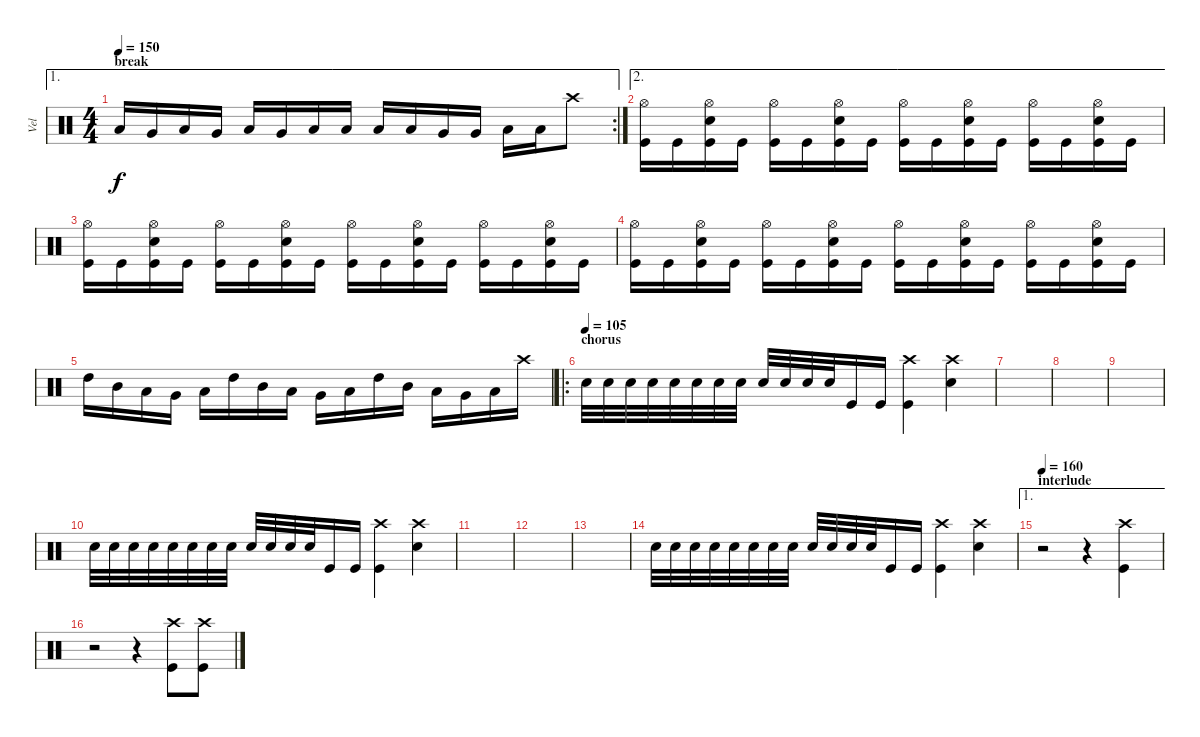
\track ("Vel" "Vel") {instrument percussion}
\staff {score}
\articulation defaults
\ae 1
\rc 2
\ts (4 4)
\section ("" "break")
\tempo 150
\clef neutral
\ks c "Low Tom (hit)".16{dy f} "Very Low Tom (hit)".16 "Low Floor Tom (hit)".16 "Very Low Tom (hit)".16 "Low Tom (hit)".16 "Very Low Tom (hit)".16 "Low Tom (hit)".16 "Low Floor Tom (hit)".16 "Low Tom (hit)".16 "Low Tom (hit)".16 "Very Low Tom (hit)".16 "Very Low Tom (hit)".16 "Low Floor Tom (hit)".16 "Low Floor Tom (hit)".16 "Crash high (hit)".8
|
\ae 2
("Hi-Hat (open)" "Kick (hit)").16 "Kick (hit)".16 ("Hi-Hat (open)" "Electric Snare (hit)" "Kick (hit)").16 "Kick (hit)".16 ("Hi-Hat (open)" "Kick (hit)").16 "Kick (hit)".16 ("Hi-Hat (open)" "Electric Snare (hit)" "Kick (hit)").16 "Kick (hit)".16 ("Hi-Hat (open)" "Kick (hit)").16 "Kick (hit)".16 ("Hi-Hat (open)" "Electric Snare (hit)" "Kick (hit)").16 "Kick (hit)".16 ("Hi-Hat (open)" "Kick (hit)").16 "Kick (hit)".16 ("Hi-Hat (open)" "Electric Snare (hit)" "Kick (hit)").16 "Kick (hit)".16 |
("Hi-Hat (open)" "Kick (hit)").16 "Kick (hit)".16 ("Hi-Hat (open)" "Electric Snare (hit)" "Kick (hit)").16 "Kick (hit)".16 ("Hi-Hat (open)" "Kick (hit)").16 "Kick (hit)".16 ("Hi-Hat (open)" "Electric Snare (hit)" "Kick (hit)").16 "Kick (hit)".16 ("Hi-Hat (open)" "Kick (hit)").16 "Kick (hit)".16 ("Hi-Hat (open)" "Electric Snare (hit)" "Kick (hit)").16 "Kick (hit)".16 ("Hi-Hat (open)" "Kick (hit)").16 "Kick (hit)".16 ("Hi-Hat (open)" "Electric Snare (hit)" "Kick (hit)").16 "Kick (hit)".16 |
("Hi-Hat (open)" "Kick (hit)").16 "Kick (hit)".16 ("Hi-Hat (open)" "Electric Snare (hit)" "Kick (hit)").16 "Kick (hit)".16 ("Hi-Hat (open)" "Kick (hit)").16 "Kick (hit)".16 ("Hi-Hat (open)" "Electric Snare (hit)" "Kick (hit)").16 "Kick (hit)".16 ("Hi-Hat (open)" "Kick (hit)").16 "Kick (hit)".16 ("Hi-Hat (open)" "Electric Snare (hit)" "Kick (hit)").16 "Kick (hit)".16 ("Hi-Hat (open)" "Kick (hit)").16 "Kick (hit)".16 ("Hi-Hat (open)" "Electric Snare (hit)" "Kick (hit)").16 "Kick (hit)".16 |
"High Tom (hit)".16 "Mid Tom (hit)".16 "Low Tom (hit)".16 "Very Low Tom (hit)".16 "Low Floor Tom (hit)".16 "High Tom (hit)".16 "Mid Tom (hit)".16 "Low Tom (hit)".16 "Very Low Tom (hit)".16 "Low Floor Tom (hit)".16 "High Tom (hit)".16 "Mid Tom (hit)".16 "Low Tom (hit)".16 "Very Low Tom (hit)".16 "Low Floor Tom (hit)".16 "Crash high (hit)".16 |
\ro
\section ("" "chorus")
\tempo (105)
"Electric Snare (hit)".32 "Electric Snare (hit)".32 "Electric Snare (hit)".32 "Electric Snare (hit)".32 "Electric Snare (hit)".32 "Electric Snare (hit)".32 "Electric Snare (hit)".32 "Electric Snare (hit)".32 "Electric Snare (hit)".32 "Electric Snare (hit)".32 "Electric Snare (hit)".32 "Electric Snare (hit)".32 "Kick (hit)".16 "Kick (hit)".16 ("Crash high (hit)" "Kick (hit)").4 ("Crash high (hit)" "Electric Snare (hit)").4 |
|
|
|
"Electric Snare (hit)".32 "Electric Snare (hit)".32 "Electric Snare (hit)".32 "Electric Snare (hit)".32 "Electric Snare (hit)".32 "Electric Snare (hit)".32 "Electric Snare (hit)".32 "Electric Snare (hit)".32 "Electric Snare (hit)".32 "Electric Snare (hit)".32 "Electric Snare (hit)".32 "Electric Snare (hit)".32 "Kick (hit)".16 "Kick (hit)".16 ("Crash high (hit)" "Kick (hit)").4 ("Crash high (hit)" "Electric Snare (hit)").4 |
|
|
|
"Electric Snare (hit)".32 "Electric Snare (hit)".32 "Electric Snare (hit)".32 "Electric Snare (hit)".32 "Electric Snare (hit)".32 "Electric Snare (hit)".32 "Electric Snare (hit)".32 "Electric Snare (hit)".32 "Electric Snare (hit)".32 "Electric Snare (hit)".32 "Electric Snare (hit)".32 "Electric Snare (hit)".32 "Kick (hit)".16 "Kick (hit)".16 ("Crash high (hit)" "Kick (hit)").4 ("Crash high (hit)" "Electric Snare (hit)").4 |
\ae 1
\section ("" "interlude")
\tempo 160
r.2 r.4 ("Crash high (hit)" "Kick (hit)").4 |
r.2 r.4 ("Crash high (hit)" "Kick (hit)").8 ("Crash high (hit)" "Kick (hit)").8
